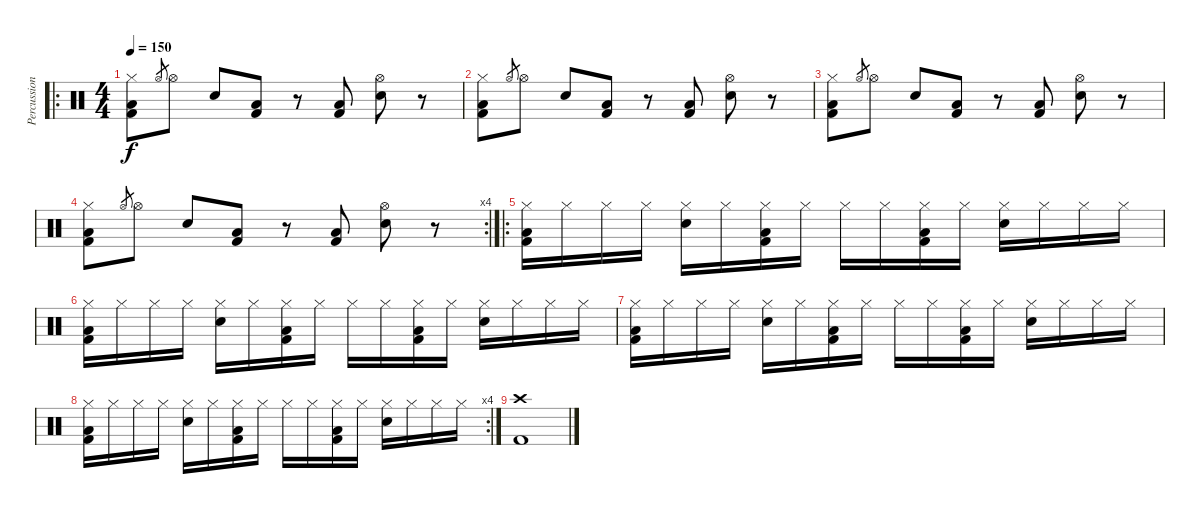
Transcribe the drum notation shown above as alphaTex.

\track ("Percussion" "Percussion") {instrument percussion}
\staff {score}
\articulation defaults
\ro
\ts (4 4)
\tempo 150
\clef neutral
\ks c
("Hi-Hat (closed)" "Low Floor Tom (hit)" "Kick (hit) 2").8{dy f} "Hi-Hat (open)".8{gr} "Hi-Hat (open)".8 "Hand Clap (hit)".8 ("Low Floor Tom (hit)" "Kick (hit) 2").8 r.8 ("Low Floor Tom (hit)" "Kick (hit) 2").8 ("Hi-Hat (open)" "Hand Clap (hit)").8 r.8 |
("Hi-Hat (closed)" "Low Floor Tom (hit)" "Kick (hit) 2").8 "Hi-Hat (open)".8{gr} "Hi-Hat (open)".8 "Hand Clap (hit)".8 ("Low Floor Tom (hit)" "Kick (hit) 2").8 r.8 ("Low Floor Tom (hit)" "Kick (hit) 2").8 ("Hi-Hat (open)" "Hand Clap (hit)").8 r.8 |
("Hi-Hat (closed)" "Low Floor Tom (hit)" "Kick (hit) 2").8 "Hi-Hat (open)".8{gr} "Hi-Hat (open)".8 "Hand Clap (hit)".8 ("Low Floor Tom (hit)" "Kick (hit) 2").8 r.8 ("Low Floor Tom (hit)" "Kick (hit) 2").8 ("Hi-Hat (open)" "Hand Clap (hit)").8 r.8 |
\rc 4
("Hi-Hat (closed)" "Low Floor Tom (hit)" "Kick (hit) 2").8 "Hi-Hat (open)".8{gr} "Hi-Hat (open)".8 "Hand Clap (hit)".8 ("Low Floor Tom (hit)" "Kick (hit) 2").8 r.8 ("Low Floor Tom (hit)" "Kick (hit) 2").8 ("Hi-Hat (open)" "Hand Clap (hit)").8 r.8 |
\ro
("Hi-Hat (closed)" "Low Floor Tom (hit)" "Kick (hit) 2").16 "Hi-Hat (closed)".16 "Hi-Hat (closed)".16 "Hi-Hat (closed)".16 ("Hi-Hat (closed)" "Hand Clap (hit)").16 "Hi-Hat (closed)".16 ("Hi-Hat (closed)" "Low Floor Tom (hit)" "Kick (hit) 2").16 "Hi-Hat (closed)".16 "Hi-Hat (closed)".16 "Hi-Hat (closed)".16 ("Hi-Hat (closed)" "Low Floor Tom (hit)" "Kick (hit) 2").16 "Hi-Hat (closed)".16 ("Hi-Hat (closed)" "Hand Clap (hit)").16 "Hi-Hat (closed)".16 "Hi-Hat (closed)".16 "Hi-Hat (closed)".16 |
("Hi-Hat (closed)" "Low Floor Tom (hit)" "Kick (hit) 2").16 "Hi-Hat (closed)".16 "Hi-Hat (closed)".16 "Hi-Hat (closed)".16 ("Hi-Hat (closed)" "Hand Clap (hit)").16 "Hi-Hat (closed)".16 ("Hi-Hat (closed)" "Low Floor Tom (hit)" "Kick (hit) 2").16 "Hi-Hat (closed)".16 "Hi-Hat (closed)".16 "Hi-Hat (closed)".16 ("Hi-Hat (closed)" "Low Floor Tom (hit)" "Kick (hit) 2").16 "Hi-Hat (closed)".16 ("Hi-Hat (closed)" "Hand Clap (hit)").16 "Hi-Hat (closed)".16 "Hi-Hat (closed)".16 "Hi-Hat (closed)".16 |
("Hi-Hat (closed)" "Low Floor Tom (hit)" "Kick (hit) 2").16 "Hi-Hat (closed)".16 "Hi-Hat (closed)".16 "Hi-Hat (closed)".16 ("Hi-Hat (closed)" "Hand Clap (hit)").16 "Hi-Hat (closed)".16 ("Hi-Hat (closed)" "Low Floor Tom (hit)" "Kick (hit) 2").16 "Hi-Hat (closed)".16 "Hi-Hat (closed)".16 "Hi-Hat (closed)".16 ("Hi-Hat (closed)" "Low Floor Tom (hit)" "Kick (hit) 2").16 "Hi-Hat (closed)".16 ("Hi-Hat (closed)" "Hand Clap (hit)").16 "Hi-Hat (closed)".16 "Hi-Hat (closed)".16 "Hi-Hat (closed)".16 |
\rc 4
("Hi-Hat (closed)" "Low Floor Tom (hit)" "Kick (hit) 2").16 "Hi-Hat (closed)".16 "Hi-Hat (closed)".16 "Hi-Hat (closed)".16 ("Hi-Hat (closed)" "Hand Clap (hit)").16 "Hi-Hat (closed)".16 ("Hi-Hat (closed)" "Low Floor Tom (hit)" "Kick (hit) 2").16 "Hi-Hat (closed)".16 "Hi-Hat (closed)".16 "Hi-Hat (closed)".16 ("Hi-Hat (closed)" "Low Floor Tom (hit)" "Kick (hit) 2").16 "Hi-Hat (closed)".16 ("Hi-Hat (closed)" "Hand Clap (hit)").16 "Hi-Hat (closed)".16 "Hi-Hat (closed)".16 "Hi-Hat (closed)".16 |
("Crash high (hit)" "Kick (hit) 2").1
